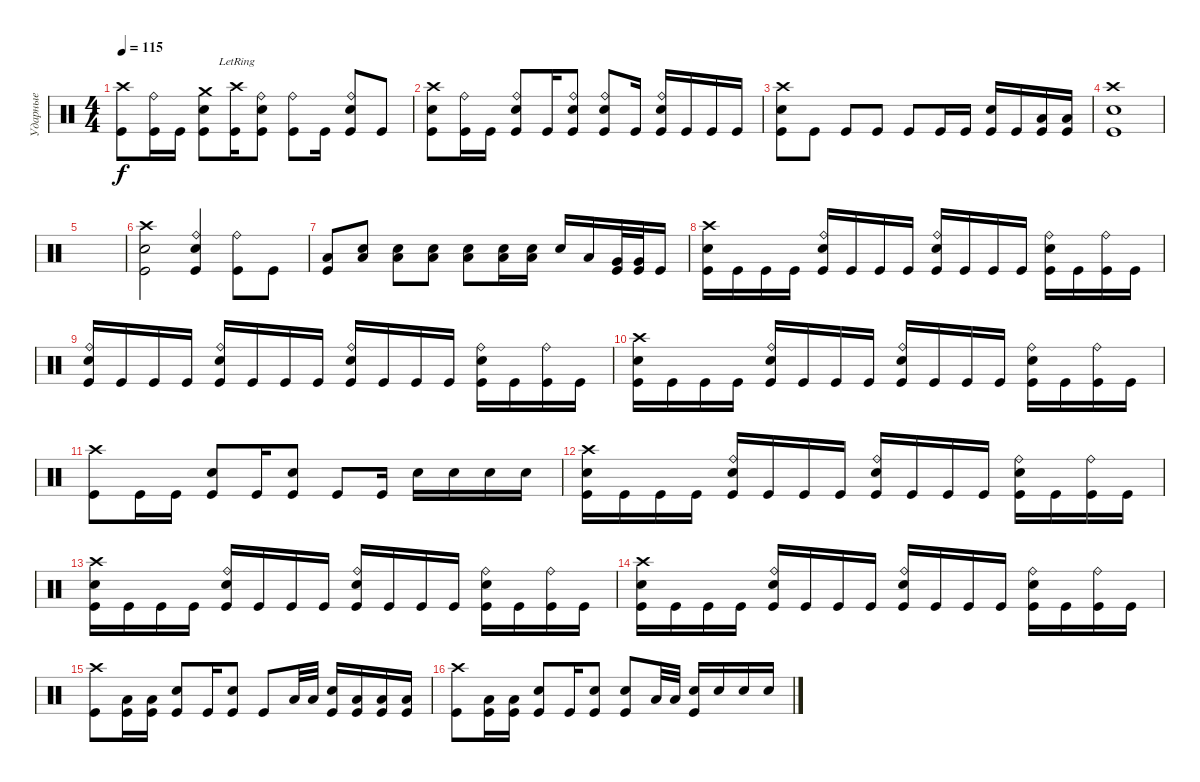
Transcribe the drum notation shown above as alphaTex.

\track ("Ударные" "Ударные") {instrument percussion}
\staff {score}
\articulation defaults
\ts (4 4)
\tempo 115
\clef neutral
\ks c
("Crash high (hit)" "Kick (hit)").8{dy f} ("Ride (bell)" "Kick (hit)").16 "Kick (hit)".16 ("Crash medium (hit)" "Electric Snare (hit)" "Kick (hit)").8 ("Crash high (hit)"{lr} "Kick (hit)").16 ("Ride (bell)" "Electric Snare (hit)" "Kick (hit)").8 ("Ride (bell)" "Kick (hit)").8 "Kick (hit)".16 ("Ride (bell)" "Electric Snare (hit)" "Kick (hit)").8 "Kick (hit)".8 |
("Crash high (hit)" "Electric Snare (hit)" "Kick (hit)").8 ("Ride (bell)" "Kick (hit)").16 "Kick (hit)".16 ("Ride (bell)" "Electric Snare (hit)" "Kick (hit)").8 "Kick (hit)".16 ("Ride (bell)" "Electric Snare (hit)" "Kick (hit)").8 ("Ride (bell)" "Electric Snare (hit)" "Kick (hit)").8 "Kick (hit)".16 ("Ride (bell)" "Electric Snare (hit)" "Kick (hit)").16 "Kick (hit)".16 "Kick (hit)".16 "Kick (hit)".16 |
("Crash high (hit)" "Electric Snare (hit)" "Kick (hit)").8 "Kick (hit)".8 "Kick (hit)".8 "Kick (hit)".8 "Kick (hit)".8 "Kick (hit)".16 "Kick (hit)".16 ("Electric Snare (hit)" "Kick (hit)").16 "Kick (hit)".16 ("Low Tom (hit)" "Kick (hit)").16 ("Low Tom (hit)" "Kick (hit)").16 |
("Crash high (hit)" "Electric Snare (hit)" "Kick (hit)").1 |
|
("Crash high (hit)" "Electric Snare (hit)" "Kick (hit)").2 ("Ride (bell)" "Electric Snare (hit)" "Kick (hit)").4 ("Ride (bell)" "Kick (hit)").8 "Kick (hit)".8 |
("Low Tom (hit)" "Kick (hit)").8 ("Electric Snare (hit)" "Low Tom (hit)").8 ("Electric Snare (hit)" "Low Tom (hit)").8 ("Electric Snare (hit)" "Low Tom (hit)").8 ("Electric Snare (hit)" "Low Tom (hit)").8 ("Electric Snare (hit)" "Low Tom (hit)").16 ("Electric Snare (hit)" "Low Tom (hit)").16 "Electric Snare (hit)".16 "Low Tom (hit)".16 ("Very Low Tom (hit)" "Kick (hit)").32 ("Very Low Tom (hit)" "Kick (hit)").32 "Kick (hit)".16 |
("Crash high (hit)" "Electric Snare (hit)" "Kick (hit)").16 "Kick (hit)".16 "Kick (hit)".16 "Kick (hit)".16 ("Ride (bell)" "Electric Snare (hit)" "Kick (hit)").16 "Kick (hit)".16 "Kick (hit)".16 "Kick (hit)".16 ("Ride (bell)" "Electric Snare (hit)" "Kick (hit)").16 "Kick (hit)".16 "Kick (hit)".16 "Kick (hit)".16 ("Ride (bell)" "Electric Snare (hit)" "Kick (hit)").16 "Kick (hit)".16 ("Ride (bell)" "Kick (hit)").16 "Kick (hit)".16 |
("Ride (bell)" "Electric Snare (hit)" "Kick (hit)").16 "Kick (hit)".16 "Kick (hit)".16 "Kick (hit)".16 ("Ride (bell)" "Electric Snare (hit)" "Kick (hit)").16 "Kick (hit)".16 "Kick (hit)".16 "Kick (hit)".16 ("Ride (bell)" "Electric Snare (hit)" "Kick (hit)").16 "Kick (hit)".16 "Kick (hit)".16 "Kick (hit)".16 ("Ride (bell)" "Electric Snare (hit)" "Kick (hit)").16 "Kick (hit)".16 ("Ride (bell)" "Kick (hit)").16 "Kick (hit)".16 |
("Crash high (hit)" "Electric Snare (hit)" "Kick (hit)").16 "Kick (hit)".16 "Kick (hit)".16 "Kick (hit)".16 ("Ride (bell)" "Electric Snare (hit)" "Kick (hit)").16 "Kick (hit)".16 "Kick (hit)".16 "Kick (hit)".16 ("Ride (bell)" "Electric Snare (hit)" "Kick (hit)").16 "Kick (hit)".16 "Kick (hit)".16 "Kick (hit)".16 ("Ride (bell)" "Electric Snare (hit)" "Kick (hit)").16 "Kick (hit)".16 ("Ride (bell)" "Kick (hit)").16 "Kick (hit)".16 |
("Crash high (hit)" "Kick (hit)").8 "Kick (hit)".16 "Kick (hit)".16 ("Electric Snare (hit)" "Kick (hit)").8 "Kick (hit)".16 ("Electric Snare (hit)" "Kick (hit)").8 "Kick (hit)".8 "Kick (hit)".16 "Electric Snare (hit)".16 "Electric Snare (hit)".16 "Electric Snare (hit)".16 "Electric Snare (hit)".16 |
("Crash high (hit)" "Electric Snare (hit)" "Kick (hit)").16 "Kick (hit)".16 "Kick (hit)".16 "Kick (hit)".16 ("Ride (bell)" "Electric Snare (hit)" "Kick (hit)").16 "Kick (hit)".16 "Kick (hit)".16 "Kick (hit)".16 ("Ride (bell)" "Electric Snare (hit)" "Kick (hit)").16 "Kick (hit)".16 "Kick (hit)".16 "Kick (hit)".16 ("Ride (bell)" "Electric Snare (hit)" "Kick (hit)").16 "Kick (hit)".16 ("Ride (bell)" "Kick (hit)").16 "Kick (hit)".16 |
("Crash high (hit)" "Electric Snare (hit)" "Kick (hit)").16 "Kick (hit)".16 "Kick (hit)".16 "Kick (hit)".16 ("Ride (bell)" "Electric Snare (hit)" "Kick (hit)").16 "Kick (hit)".16 "Kick (hit)".16 "Kick (hit)".16 ("Ride (bell)" "Electric Snare (hit)" "Kick (hit)").16 "Kick (hit)".16 "Kick (hit)".16 "Kick (hit)".16 ("Ride (bell)" "Electric Snare (hit)" "Kick (hit)").16 "Kick (hit)".16 ("Ride (bell)" "Kick (hit)").16 "Kick (hit)".16 |
("Crash high (hit)" "Electric Snare (hit)" "Kick (hit)").16 "Kick (hit)".16 "Kick (hit)".16 "Kick (hit)".16 ("Ride (bell)" "Electric Snare (hit)" "Kick (hit)").16 "Kick (hit)".16 "Kick (hit)".16 "Kick (hit)".16 ("Ride (bell)" "Electric Snare (hit)" "Kick (hit)").16 "Kick (hit)".16 "Kick (hit)".16 "Kick (hit)".16 ("Ride (bell)" "Electric Snare (hit)" "Kick (hit)").16 "Kick (hit)".16 ("Ride (bell)" "Kick (hit)").16 "Kick (hit)".16 |
("Crash high (hit)" "Kick (hit)").8 ("Low Tom (hit)" "Kick (hit)").16 ("Low Tom (hit)" "Kick (hit)").16 ("Electric Snare (hit)" "Kick (hit)").8 "Kick (hit)".16 ("Electric Snare (hit)" "Kick (hit)").8 "Kick (hit)".8 "Low Tom (hit)".32 "Low Tom (hit)".32 ("Electric Snare (hit)" "Kick (hit)").16 ("Low Tom (hit)" "Kick (hit)").16 ("Low Tom (hit)" "Kick (hit)").16 ("Low Tom (hit)" "Kick (hit)").16 |
("Crash high (hit)" "Kick (hit)").8 ("Low Tom (hit)" "Kick (hit)").16 ("Low Tom (hit)" "Kick (hit)").16 ("Electric Snare (hit)" "Kick (hit)").8 "Kick (hit)".16 ("Electric Snare (hit)" "Kick (hit)").8 ("Electric Snare (hit)" "Kick (hit)").8 "Low Tom (hit)".32 "Low Tom (hit)".32 ("Electric Snare (hit)" "Kick (hit)").16 "Electric Snare (hit)".16 "Electric Snare (hit)".16 "Electric Snare (hit)".16
